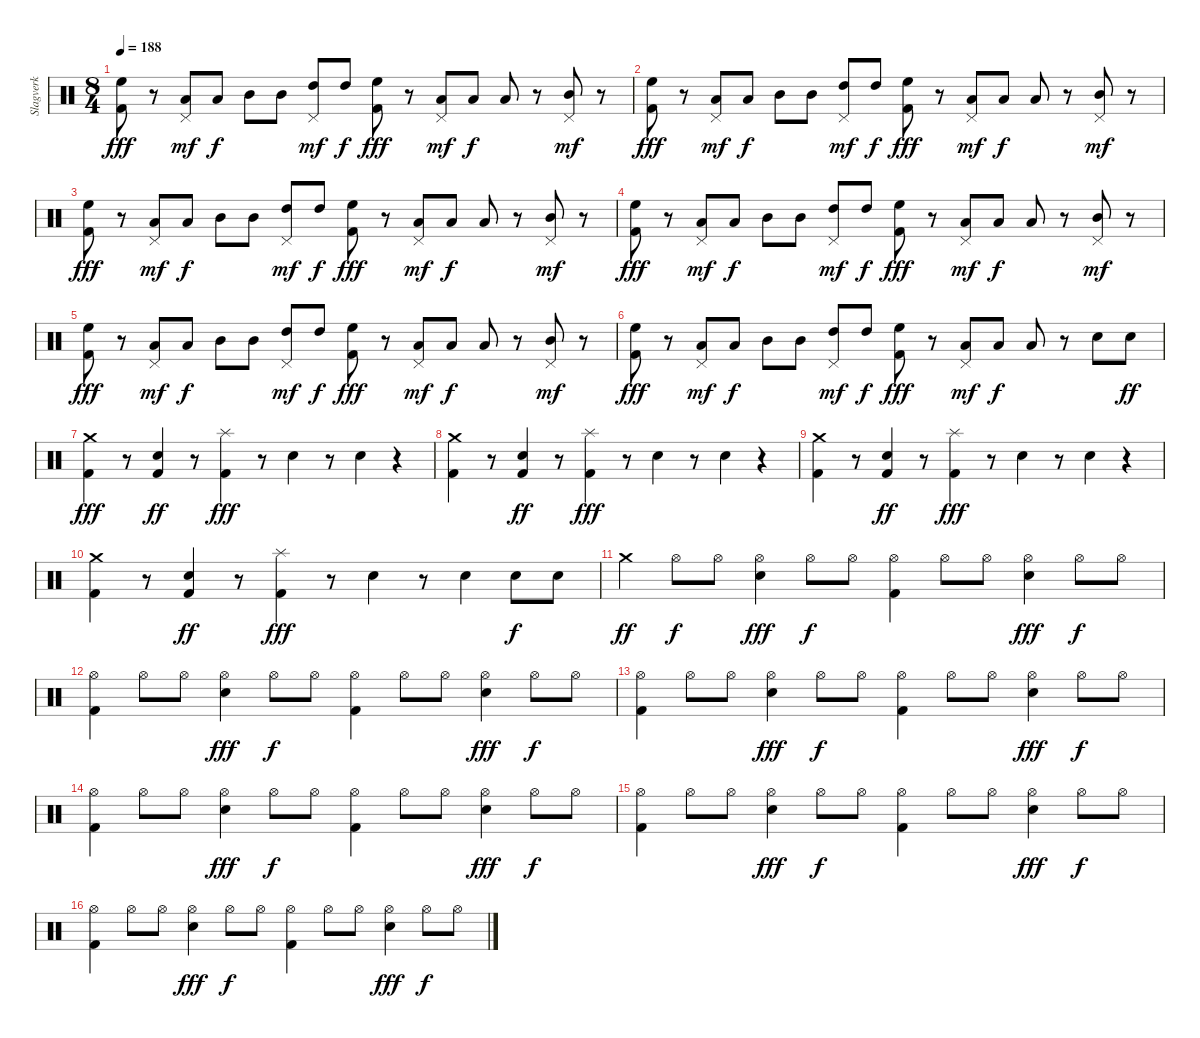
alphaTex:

\track ("Slagverk" "Slagverk") {instrument percussion}
\staff {score}
\articulation defaults
\ts (8 4)
\tempo 188
\clef neutral
\ks c
("Kick (hit) 2" "High Floor Tom (hit)").8{dy fff} r.8 ("Pedal Hi-Hat (hit)" "Low Tom (hit)").8{dy mf} "Low Tom (hit)".8{dy f} "Mid Tom (hit)".8 "Mid Tom (hit)".8 ("Pedal Hi-Hat (hit)" "High Tom (hit)").8{dy mf} "High Tom (hit)".8{dy f} ("Kick (hit) 2" "High Floor Tom (hit)").8{dy fff} r.8 ("Pedal Hi-Hat (hit)" "Low Tom (hit)").8{dy mf} "Low Tom (hit)".8{dy f} "Low Tom (hit)".8 r.8 ("Pedal Hi-Hat (hit)" "Mid Tom (hit)").8{dy mf} r.8 |
("Kick (hit) 2" "High Floor Tom (hit)").8{dy fff} r.8 ("Pedal Hi-Hat (hit)" "Low Tom (hit)").8{dy mf} "Low Tom (hit)".8{dy f} "Mid Tom (hit)".8 "Mid Tom (hit)".8 ("Pedal Hi-Hat (hit)" "High Tom (hit)").8{dy mf} "High Tom (hit)".8{dy f} ("Kick (hit) 2" "High Floor Tom (hit)").8{dy fff} r.8 ("Pedal Hi-Hat (hit)" "Low Tom (hit)").8{dy mf} "Low Tom (hit)".8{dy f} "Low Tom (hit)".8 r.8 ("Pedal Hi-Hat (hit)" "Mid Tom (hit)").8{dy mf} r.8 |
("Kick (hit) 2" "High Floor Tom (hit)").8{dy fff} r.8 ("Pedal Hi-Hat (hit)" "Low Tom (hit)").8{dy mf} "Low Tom (hit)".8{dy f} "Mid Tom (hit)".8 "Mid Tom (hit)".8 ("Pedal Hi-Hat (hit)" "High Tom (hit)").8{dy mf} "High Tom (hit)".8{dy f} ("Kick (hit) 2" "High Floor Tom (hit)").8{dy fff} r.8 ("Pedal Hi-Hat (hit)" "Low Tom (hit)").8{dy mf} "Low Tom (hit)".8{dy f} "Low Tom (hit)".8 r.8 ("Pedal Hi-Hat (hit)" "Mid Tom (hit)").8{dy mf} r.8 |
("Kick (hit) 2" "High Floor Tom (hit)").8{dy fff} r.8 ("Pedal Hi-Hat (hit)" "Low Tom (hit)").8{dy mf} "Low Tom (hit)".8{dy f} "Mid Tom (hit)".8 "Mid Tom (hit)".8 ("Pedal Hi-Hat (hit)" "High Tom (hit)").8{dy mf} "High Tom (hit)".8{dy f} ("Kick (hit) 2" "High Floor Tom (hit)").8{dy fff} r.8 ("Pedal Hi-Hat (hit)" "Low Tom (hit)").8{dy mf} "Low Tom (hit)".8{dy f} "Low Tom (hit)".8 r.8 ("Pedal Hi-Hat (hit)" "Mid Tom (hit)").8{dy mf} r.8 |
("Kick (hit) 2" "High Floor Tom (hit)").8{dy fff} r.8 ("Pedal Hi-Hat (hit)" "Low Tom (hit)").8{dy mf} "Low Tom (hit)".8{dy f} "Mid Tom (hit)".8 "Mid Tom (hit)".8 ("Pedal Hi-Hat (hit)" "High Tom (hit)").8{dy mf} "High Tom (hit)".8{dy f} ("Kick (hit) 2" "High Floor Tom (hit)").8{dy fff} r.8 ("Pedal Hi-Hat (hit)" "Low Tom (hit)").8{dy mf} "Low Tom (hit)".8{dy f} "Low Tom (hit)".8 r.8 ("Pedal Hi-Hat (hit)" "Mid Tom (hit)").8{dy mf} r.8 |
("Kick (hit) 2" "High Floor Tom (hit)").8{dy fff} r.8 ("Pedal Hi-Hat (hit)" "Low Tom (hit)").8{dy mf} "Low Tom (hit)".8{dy f} "Mid Tom (hit)".8 "Mid Tom (hit)".8 ("Pedal Hi-Hat (hit)" "High Tom (hit)").8{dy mf} "High Tom (hit)".8{dy f} ("Kick (hit) 2" "High Floor Tom (hit)").8{dy fff} r.8 ("Pedal Hi-Hat (hit)" "Low Tom (hit)").8{dy mf} "Low Tom (hit)".8{dy f} "Low Tom (hit)".8 r.8 "Snare (hit) 2".8 "Snare (hit) 2".8{dy ff} |
("Crash medium (hit)" "Kick (hit) 2").4{dy fff} r.8 ("Snare (hit) 2" "Kick (hit) 2").4{dy ff} r.8 ("Splash (hit)" "Kick (hit) 2").4{dy fff} r.8 "Snare (hit) 2".4 r.8 "Snare (hit) 2".4 r.4 |
("Crash medium (hit)" "Kick (hit) 2").4 r.8 ("Snare (hit) 2" "Kick (hit) 2").4{dy ff} r.8 ("Splash (hit)" "Kick (hit) 2").4{dy fff} r.8 "Snare (hit) 2".4 r.8 "Snare (hit) 2".4 r.4 |
("Crash medium (hit)" "Kick (hit) 2").4 r.8 ("Snare (hit) 2" "Kick (hit) 2").4{dy ff} r.8 ("Splash (hit)" "Kick (hit) 2").4{dy fff} r.8 "Snare (hit) 2".4 r.8 "Snare (hit) 2".4 r.4 |
("Crash medium (hit)" "Kick (hit) 2").4 r.8 ("Snare (hit) 2" "Kick (hit) 2").4{dy ff} r.8 ("Splash (hit)" "Kick (hit) 2").4{dy fff} r.8 "Snare (hit) 2".4 r.8 "Snare (hit) 2".4 "Snare (hit) 2".8{dy f} "Snare (hit) 2".8 |
"Crash medium (hit)".4{dy ff} "Hi-Hat (open)".8{dy f} "Hi-Hat (open)".8 ("Hi-Hat (open)" "Snare (hit) 2").4{dy fff} "Hi-Hat (open)".8{dy f} "Hi-Hat (open)".8 ("Hi-Hat (open)" "Kick (hit) 2").4 "Hi-Hat (open)".8 "Hi-Hat (open)".8 ("Hi-Hat (open)" "Snare (hit) 2").4{dy fff} "Hi-Hat (open)".8{dy f} "Hi-Hat (open)".8 |
("Hi-Hat (open)" "Kick (hit) 2").4 "Hi-Hat (open)".8 "Hi-Hat (open)".8 ("Hi-Hat (open)" "Snare (hit) 2").4{dy fff} "Hi-Hat (open)".8{dy f} "Hi-Hat (open)".8 ("Hi-Hat (open)" "Kick (hit) 2").4 "Hi-Hat (open)".8 "Hi-Hat (open)".8 ("Hi-Hat (open)" "Snare (hit) 2").4{dy fff} "Hi-Hat (open)".8{dy f} "Hi-Hat (open)".8 |
("Hi-Hat (open)" "Kick (hit) 2").4 "Hi-Hat (open)".8 "Hi-Hat (open)".8 ("Hi-Hat (open)" "Snare (hit) 2").4{dy fff} "Hi-Hat (open)".8{dy f} "Hi-Hat (open)".8 ("Hi-Hat (open)" "Kick (hit) 2").4 "Hi-Hat (open)".8 "Hi-Hat (open)".8 ("Hi-Hat (open)" "Snare (hit) 2").4{dy fff} "Hi-Hat (open)".8{dy f} "Hi-Hat (open)".8 |
("Hi-Hat (open)" "Kick (hit) 2").4 "Hi-Hat (open)".8 "Hi-Hat (open)".8 ("Hi-Hat (open)" "Snare (hit) 2").4{dy fff} "Hi-Hat (open)".8{dy f} "Hi-Hat (open)".8 ("Hi-Hat (open)" "Kick (hit) 2").4 "Hi-Hat (open)".8 "Hi-Hat (open)".8 ("Hi-Hat (open)" "Snare (hit) 2").4{dy fff} "Hi-Hat (open)".8{dy f} "Hi-Hat (open)".8 |
("Hi-Hat (open)" "Kick (hit) 2").4 "Hi-Hat (open)".8 "Hi-Hat (open)".8 ("Hi-Hat (open)" "Snare (hit) 2").4{dy fff} "Hi-Hat (open)".8{dy f} "Hi-Hat (open)".8 ("Hi-Hat (open)" "Kick (hit) 2").4 "Hi-Hat (open)".8 "Hi-Hat (open)".8 ("Hi-Hat (open)" "Snare (hit) 2").4{dy fff} "Hi-Hat (open)".8{dy f} "Hi-Hat (open)".8 |
("Hi-Hat (open)" "Kick (hit) 2").4 "Hi-Hat (open)".8 "Hi-Hat (open)".8 ("Hi-Hat (open)" "Snare (hit) 2").4{dy fff} "Hi-Hat (open)".8{dy f} "Hi-Hat (open)".8 ("Hi-Hat (open)" "Kick (hit) 2").4 "Hi-Hat (open)".8 "Hi-Hat (open)".8 ("Hi-Hat (open)" "Snare (hit) 2").4{dy fff} "Hi-Hat (open)".8{dy f} "Hi-Hat (open)".8
